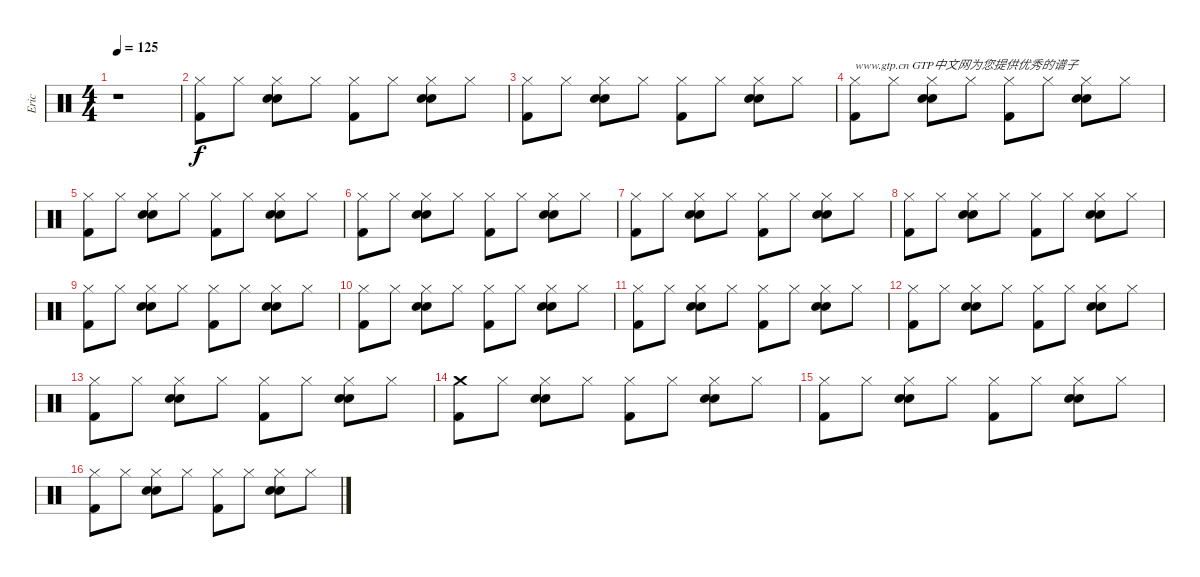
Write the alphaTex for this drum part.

\track ("Eric" "Eric") {instrument percussion}
\staff {score}
\articulation defaults
\ts (4 4)
\tempo 125
\clef neutral
\ks c
r.1{dy f} |
("Hi-Hat (closed)" "Kick (hit) 2").8 "Hi-Hat (closed)".8 ("Hi-Hat (closed)" "Electric Snare (hit)" "Snare (hit) 2").8 "Hi-Hat (closed)".8 ("Hi-Hat (closed)" "Kick (hit) 2").8 "Hi-Hat (closed)".8 ("Hi-Hat (closed)" "Snare (hit) 2" "Electric Snare (hit)").8 "Hi-Hat (closed)".8 |
("Hi-Hat (closed)" "Kick (hit) 2").8 "Hi-Hat (closed)".8 ("Hi-Hat (closed)" "Electric Snare (hit)" "Snare (hit) 2").8 "Hi-Hat (closed)".8 ("Hi-Hat (closed)" "Kick (hit) 2").8 "Hi-Hat (closed)".8 ("Hi-Hat (closed)" "Snare (hit) 2" "Electric Snare (hit)").8 "Hi-Hat (closed)".8 |
("Hi-Hat (closed)" "Kick (hit) 2").8{txt "www.gtp.cn GTP中文网为您提供优秀的谱子"} "Hi-Hat (closed)".8 ("Hi-Hat (closed)" "Electric Snare (hit)" "Snare (hit) 2").8 "Hi-Hat (closed)".8 ("Hi-Hat (closed)" "Kick (hit) 2").8 "Hi-Hat (closed)".8 ("Hi-Hat (closed)" "Snare (hit) 2" "Electric Snare (hit)").8 "Hi-Hat (closed)".8 |
("Hi-Hat (closed)" "Kick (hit) 2").8 "Hi-Hat (closed)".8 ("Hi-Hat (closed)" "Electric Snare (hit)" "Snare (hit) 2").8 "Hi-Hat (closed)".8 ("Hi-Hat (closed)" "Kick (hit) 2").8 "Hi-Hat (closed)".8 ("Hi-Hat (closed)" "Snare (hit) 2" "Electric Snare (hit)").8 "Hi-Hat (closed)".8 |
("Hi-Hat (closed)" "Kick (hit) 2").8 "Hi-Hat (closed)".8 ("Hi-Hat (closed)" "Electric Snare (hit)" "Snare (hit) 2").8 "Hi-Hat (closed)".8 ("Hi-Hat (closed)" "Kick (hit) 2").8 "Hi-Hat (closed)".8 ("Hi-Hat (closed)" "Snare (hit) 2" "Electric Snare (hit)").8 "Hi-Hat (closed)".8 |
("Hi-Hat (closed)" "Kick (hit) 2").8 "Hi-Hat (closed)".8 ("Hi-Hat (closed)" "Electric Snare (hit)" "Snare (hit) 2").8 "Hi-Hat (closed)".8 ("Hi-Hat (closed)" "Kick (hit) 2").8 "Hi-Hat (closed)".8 ("Hi-Hat (closed)" "Snare (hit) 2" "Electric Snare (hit)").8 "Hi-Hat (closed)".8 |
("Hi-Hat (closed)" "Kick (hit) 2").8 "Hi-Hat (closed)".8 ("Hi-Hat (closed)" "Electric Snare (hit)" "Snare (hit) 2").8 "Hi-Hat (closed)".8 ("Hi-Hat (closed)" "Kick (hit) 2").8 "Hi-Hat (closed)".8 ("Hi-Hat (closed)" "Snare (hit) 2" "Electric Snare (hit)").8 "Hi-Hat (closed)".8 |
("Hi-Hat (closed)" "Kick (hit) 2").8 "Hi-Hat (closed)".8 ("Hi-Hat (closed)" "Electric Snare (hit)" "Snare (hit) 2").8 "Hi-Hat (closed)".8 ("Hi-Hat (closed)" "Kick (hit) 2").8 "Hi-Hat (closed)".8 ("Hi-Hat (closed)" "Snare (hit) 2" "Electric Snare (hit)").8 "Hi-Hat (closed)".8 |
("Hi-Hat (closed)" "Kick (hit) 2").8 "Hi-Hat (closed)".8 ("Hi-Hat (closed)" "Electric Snare (hit)" "Snare (hit) 2").8 "Hi-Hat (closed)".8 ("Hi-Hat (closed)" "Kick (hit) 2").8 "Hi-Hat (closed)".8 ("Hi-Hat (closed)" "Snare (hit) 2" "Electric Snare (hit)").8 "Hi-Hat (closed)".8 |
("Hi-Hat (closed)" "Kick (hit) 2").8 "Hi-Hat (closed)".8 ("Hi-Hat (closed)" "Electric Snare (hit)" "Snare (hit) 2").8 "Hi-Hat (closed)".8 ("Hi-Hat (closed)" "Kick (hit) 2").8 "Hi-Hat (closed)".8 ("Hi-Hat (closed)" "Snare (hit) 2" "Electric Snare (hit)").8 "Hi-Hat (closed)".8 |
("Hi-Hat (closed)" "Kick (hit) 2").8 "Hi-Hat (closed)".8 ("Hi-Hat (closed)" "Electric Snare (hit)" "Snare (hit) 2").8 "Hi-Hat (closed)".8 ("Hi-Hat (closed)" "Kick (hit) 2").8 "Hi-Hat (closed)".8 ("Hi-Hat (closed)" "Snare (hit) 2" "Electric Snare (hit)").8 "Hi-Hat (closed)".8 |
("Hi-Hat (closed)" "Kick (hit) 2").8 "Hi-Hat (closed)".8 ("Hi-Hat (closed)" "Electric Snare (hit)" "Snare (hit) 2").8 "Hi-Hat (closed)".8 ("Hi-Hat (closed)" "Kick (hit) 2").8 "Hi-Hat (closed)".8 ("Hi-Hat (closed)" "Snare (hit) 2" "Electric Snare (hit)").8 "Hi-Hat (closed)".8 |
("Crash medium (hit)" "Kick (hit) 2").8 "Hi-Hat (closed)".8 ("Hi-Hat (closed)" "Electric Snare (hit)" "Snare (hit) 2").8 "Hi-Hat (closed)".8 ("Hi-Hat (closed)" "Kick (hit) 2").8 "Hi-Hat (closed)".8 ("Hi-Hat (closed)" "Snare (hit) 2" "Electric Snare (hit)").8 "Hi-Hat (closed)".8 |
("Hi-Hat (closed)" "Kick (hit) 2").8 "Hi-Hat (closed)".8 ("Hi-Hat (closed)" "Electric Snare (hit)" "Snare (hit) 2").8 "Hi-Hat (closed)".8 ("Hi-Hat (closed)" "Kick (hit) 2").8 "Hi-Hat (closed)".8 ("Hi-Hat (closed)" "Snare (hit) 2" "Electric Snare (hit)").8 "Hi-Hat (closed)".8 |
("Hi-Hat (closed)" "Kick (hit) 2").8 "Hi-Hat (closed)".8 ("Hi-Hat (closed)" "Electric Snare (hit)" "Snare (hit) 2").8 "Hi-Hat (closed)".8 ("Hi-Hat (closed)" "Kick (hit) 2").8 "Hi-Hat (closed)".8 ("Hi-Hat (closed)" "Snare (hit) 2" "Electric Snare (hit)").8 "Hi-Hat (closed)".8
